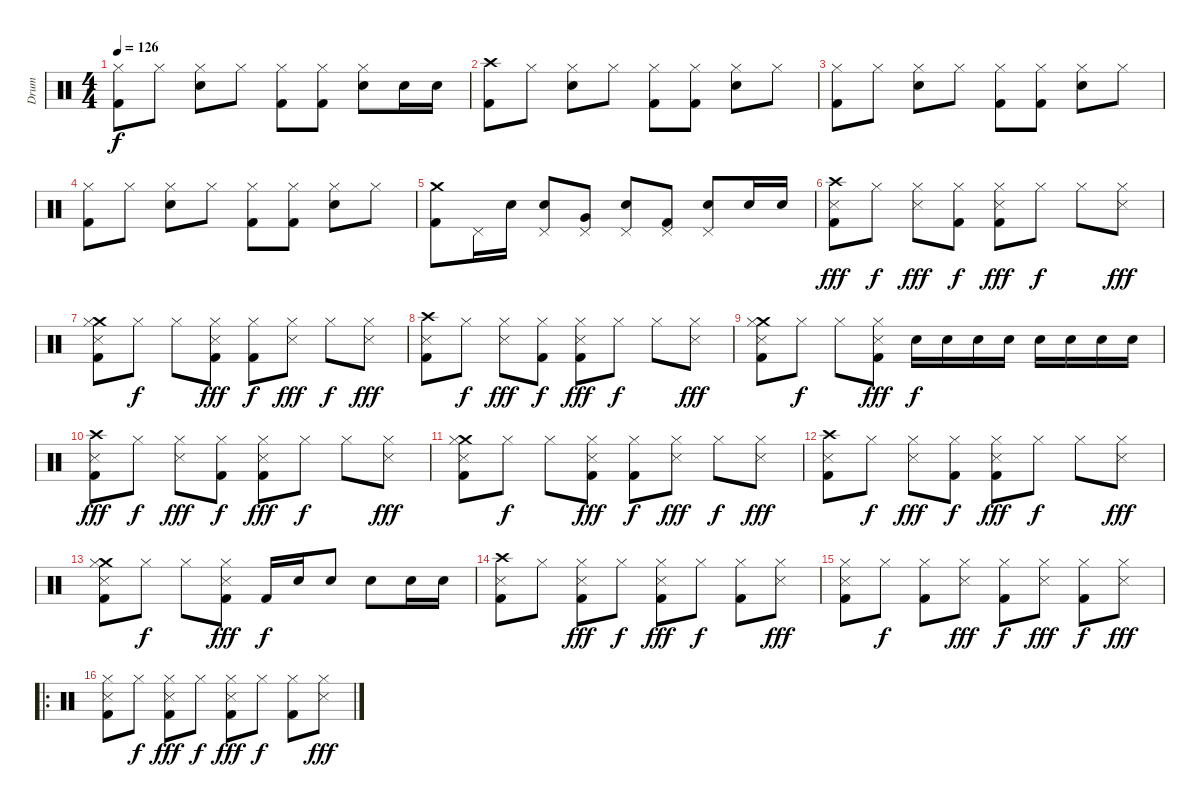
\track ("Drum" "Drum") {instrument percussion}
\staff {score}
\articulation defaults
\ts (4 4)
\tempo 126
\clef neutral
\ks c
("Hi-Hat (closed)" "Kick (hit) 2").8{dy f} "Hi-Hat (closed)".8 ("Electric Snare (hit)" "Hi-Hat (closed)").8 "Hi-Hat (closed)".8 ("Hi-Hat (closed)" "Kick (hit) 2").8 ("Hi-Hat (closed)" "Kick (hit) 2").8 ("Electric Snare (hit)" "Hi-Hat (closed)").8 "Electric Snare (hit)".16 "Electric Snare (hit)".16 |
("Crash high (hit)" "Kick (hit) 2").8 "Hi-Hat (closed)".8 ("Electric Snare (hit)" "Hi-Hat (closed)").8 "Hi-Hat (closed)".8 ("Hi-Hat (closed)" "Kick (hit) 2").8 ("Hi-Hat (closed)" "Kick (hit) 2").8 ("Electric Snare (hit)" "Hi-Hat (closed)").8 "Hi-Hat (closed)".8 |
("Hi-Hat (closed)" "Kick (hit) 2").8 "Hi-Hat (closed)".8 ("Electric Snare (hit)" "Hi-Hat (closed)").8 "Hi-Hat (closed)".8 ("Hi-Hat (closed)" "Kick (hit) 2").8 ("Hi-Hat (closed)" "Kick (hit) 2").8 ("Electric Snare (hit)" "Hi-Hat (closed)").8 "Hi-Hat (closed)".8 |
("Hi-Hat (closed)" "Kick (hit) 2").8 "Hi-Hat (closed)".8 ("Electric Snare (hit)" "Hi-Hat (closed)").8 "Hi-Hat (closed)".8 ("Hi-Hat (closed)" "Kick (hit) 2").8 ("Hi-Hat (closed)" "Kick (hit) 2").8 ("Electric Snare (hit)" "Hi-Hat (closed)").8 "Hi-Hat (closed)".8 |
("Crash medium (hit)" "Kick (hit) 2").8 "Pedal Hi-Hat (hit)".16 "Electric Snare (hit)".16 ("Electric Snare (hit)" "Pedal Hi-Hat (hit)").8 ("Very Low Tom (hit)" "Pedal Hi-Hat (hit)").8 ("Electric Snare (hit)" "Pedal Hi-Hat (hit)").8 ("Pedal Hi-Hat (hit)" "Kick (hit) 2").8 ("Electric Snare (hit)" "Pedal Hi-Hat (hit)").8 "Electric Snare (hit)".16 "Electric Snare (hit)".16 |
("Crash high (hit)" "Snare (side stick) 3" "Kick (hit) 2").8{dy fff} "Hi-Hat (closed)".8{dy f} ("Snare (side stick) 3" "Hi-Hat (closed)").8{dy fff} ("Hi-Hat (closed)" "Kick (hit) 2").8{dy f} ("Snare (side stick) 3" "Hi-Hat (closed)" "Kick (hit) 2").8{dy fff} "Hi-Hat (closed)".8{dy f} "Hi-Hat (closed)".8 ("Snare (side stick) 3" "Hi-Hat (closed)").8{dy fff} |
("Crash medium (hit)" "Snare (side stick) 3" "Hi-Hat (closed)" "Kick (hit) 2").8 "Hi-Hat (closed)".8{dy f} "Hi-Hat (closed)".8 ("Snare (side stick) 3" "Hi-Hat (closed)" "Kick (hit) 2").8{dy fff} ("Hi-Hat (closed)" "Kick (hit) 2").8{dy f} ("Snare (side stick) 3" "Hi-Hat (closed)").8{dy fff} "Hi-Hat (closed)".8{dy f} ("Snare (side stick) 3" "Hi-Hat (closed)").8{dy fff} |
("Crash high (hit)" "Snare (side stick) 3" "Kick (hit) 2").8 "Hi-Hat (closed)".8{dy f} ("Snare (side stick) 3" "Hi-Hat (closed)").8{dy fff} ("Hi-Hat (closed)" "Kick (hit) 2").8{dy f} ("Snare (side stick) 3" "Hi-Hat (closed)" "Kick (hit) 2").8{dy fff} "Hi-Hat (closed)".8{dy f} "Hi-Hat (closed)".8 ("Snare (side stick) 3" "Hi-Hat (closed)").8{dy fff} |
("Crash medium (hit)" "Snare (side stick) 3" "Hi-Hat (closed)" "Kick (hit) 2").8 "Hi-Hat (closed)".8{dy f} "Hi-Hat (closed)".8 ("Snare (side stick) 3" "Hi-Hat (closed)" "Kick (hit) 2").8{dy fff} "Electric Snare (hit)".16{dy f} "Electric Snare (hit)".16 "Electric Snare (hit)".16 "Electric Snare (hit)".16 "Electric Snare (hit)".16 "Electric Snare (hit)".16 "Electric Snare (hit)".16 "Electric Snare (hit)".16 |
("Crash high (hit)" "Snare (side stick) 3" "Kick (hit) 2").8{dy fff} "Hi-Hat (closed)".8{dy f} ("Snare (side stick) 3" "Hi-Hat (closed)").8{dy fff} ("Hi-Hat (closed)" "Kick (hit) 2").8{dy f} ("Snare (side stick) 3" "Hi-Hat (closed)" "Kick (hit) 2").8{dy fff} "Hi-Hat (closed)".8{dy f} "Hi-Hat (closed)".8 ("Snare (side stick) 3" "Hi-Hat (closed)").8{dy fff} |
("Crash medium (hit)" "Snare (side stick) 3" "Hi-Hat (closed)" "Kick (hit) 2").8 "Hi-Hat (closed)".8{dy f} "Hi-Hat (closed)".8 ("Snare (side stick) 3" "Hi-Hat (closed)" "Kick (hit) 2").8{dy fff} ("Hi-Hat (closed)" "Kick (hit) 2").8{dy f} ("Snare (side stick) 3" "Hi-Hat (closed)").8{dy fff} "Hi-Hat (closed)".8{dy f} ("Snare (side stick) 3" "Hi-Hat (closed)").8{dy fff} |
("Crash high (hit)" "Snare (side stick) 3" "Kick (hit) 2").8 "Hi-Hat (closed)".8{dy f} ("Snare (side stick) 3" "Hi-Hat (closed)").8{dy fff} ("Hi-Hat (closed)" "Kick (hit) 2").8{dy f} ("Snare (side stick) 3" "Hi-Hat (closed)" "Kick (hit) 2").8{dy fff} "Hi-Hat (closed)".8{dy f} "Hi-Hat (closed)".8 ("Snare (side stick) 3" "Hi-Hat (closed)").8{dy fff} |
("Crash medium (hit)" "Snare (side stick) 3" "Hi-Hat (closed)" "Kick (hit) 2").8 "Hi-Hat (closed)".8{dy f} "Hi-Hat (closed)".8 ("Snare (side stick) 3" "Hi-Hat (closed)" "Kick (hit) 2").8{dy fff} "Kick (hit) 2".16{dy f} "Electric Snare (hit)".16 "Electric Snare (hit)".8 "Electric Snare (hit)".8 "Electric Snare (hit)".16 "Electric Snare (hit)".16 |
("Crash high (hit)" "Snare (side stick) 3" "Kick (hit) 2").8 "Hi-Hat (closed)".8 ("Snare (side stick) 3" "Hi-Hat (closed)" "Kick (hit) 2").8{dy fff} "Hi-Hat (closed)".8{dy f} ("Snare (side stick) 3" "Hi-Hat (closed)" "Kick (hit) 2").8{dy fff} "Hi-Hat (closed)".8{dy f} ("Hi-Hat (closed)" "Kick (hit) 2").8 ("Snare (side stick) 3" "Hi-Hat (closed)").8{dy fff} |
("Snare (side stick) 3" "Hi-Hat (closed)" "Kick (hit) 2").8 "Hi-Hat (closed)".8{dy f} ("Hi-Hat (closed)" "Kick (hit) 2").8 ("Snare (side stick) 3" "Hi-Hat (closed)").8{dy fff} ("Hi-Hat (closed)" "Kick (hit) 2").8{dy f} ("Snare (side stick) 3" "Hi-Hat (closed)").8{dy fff} ("Hi-Hat (closed)" "Kick (hit) 2").8{dy f} ("Snare (side stick) 3" "Hi-Hat (closed)").8{dy fff} |
\ro
("Snare (side stick) 3" "Hi-Hat (closed)" "Kick (hit) 2").8 "Hi-Hat (closed)".8{dy f} ("Snare (side stick) 3" "Hi-Hat (closed)" "Kick (hit) 2").8{dy fff} "Hi-Hat (closed)".8{dy f} ("Snare (side stick) 3" "Hi-Hat (closed)" "Kick (hit) 2").8{dy fff} "Hi-Hat (closed)".8{dy f} ("Hi-Hat (closed)" "Kick (hit) 2").8 ("Snare (side stick) 3" "Hi-Hat (closed)").8{dy fff}
